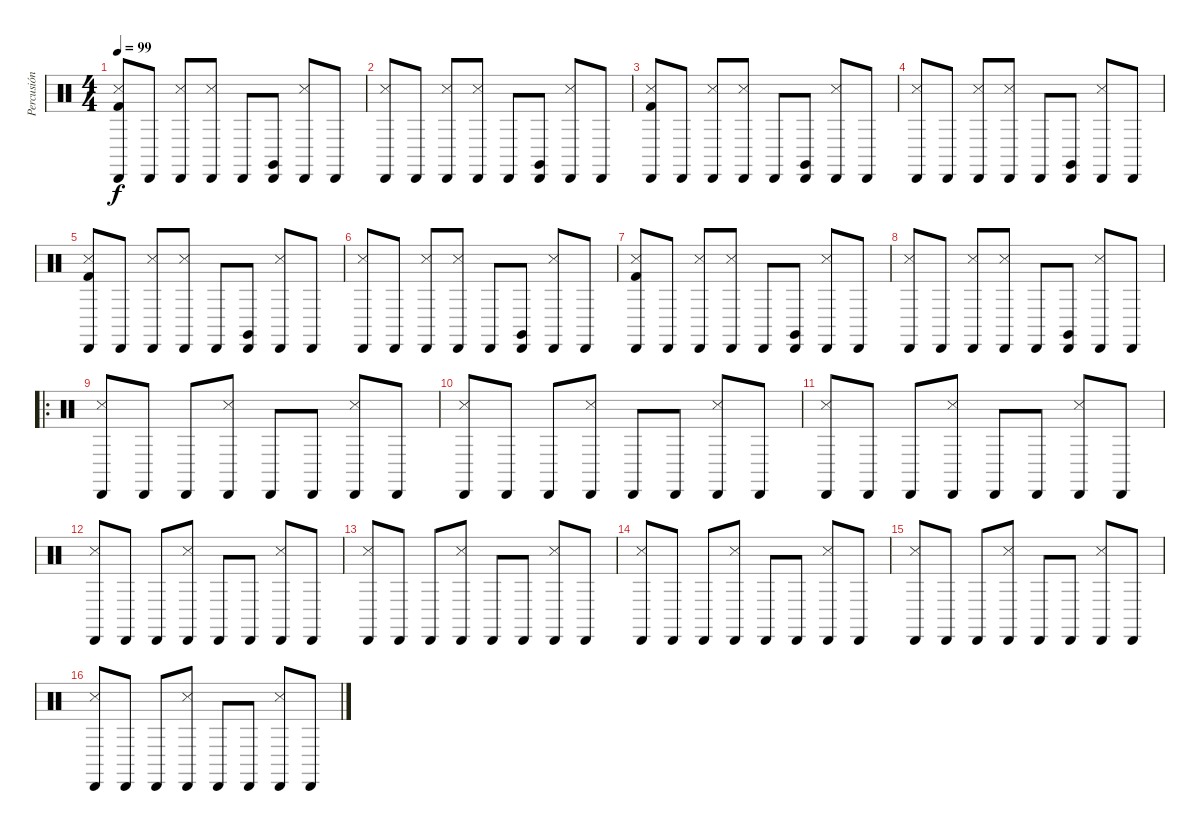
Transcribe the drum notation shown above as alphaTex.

\track ("Percusión" "Percusión") {instrument percussion}
\staff {score}
\articulation defaults
\ts (4 4)
\tempo 99
\clef neutral
\ks c
("Cabasa (hit)" "Metronome (hit)" "Kick (hit) 2").8{dy f} "Cabasa (hit)".8 ("Cabasa (hit)" "Metronome (hit)").8 ("Cabasa (hit)" "Metronome (hit)").8 "Cabasa (hit)".8 ("Cabasa (hit)" "Claves (hit)").8 ("Cabasa (hit)" "Metronome (hit)").8 "Cabasa (hit)".8 |
("Cabasa (hit)" "Metronome (hit)").8 "Cabasa (hit)".8 ("Cabasa (hit)" "Metronome (hit)").8 ("Cabasa (hit)" "Metronome (hit)").8 "Cabasa (hit)".8 ("Cabasa (hit)" "Claves (hit)").8 ("Cabasa (hit)" "Metronome (hit)").8 "Cabasa (hit)".8 |
("Cabasa (hit)" "Metronome (hit)" "Kick (hit) 2").8 "Cabasa (hit)".8 ("Cabasa (hit)" "Metronome (hit)").8 ("Cabasa (hit)" "Metronome (hit)").8 "Cabasa (hit)".8 ("Cabasa (hit)" "Claves (hit)").8 ("Cabasa (hit)" "Metronome (hit)").8 "Cabasa (hit)".8 |
("Cabasa (hit)" "Metronome (hit)").8 "Cabasa (hit)".8 ("Cabasa (hit)" "Metronome (hit)").8 ("Cabasa (hit)" "Metronome (hit)").8 "Cabasa (hit)".8 ("Cabasa (hit)" "Claves (hit)").8 ("Cabasa (hit)" "Metronome (hit)").8 "Cabasa (hit)".8 |
("Cabasa (hit)" "Metronome (hit)" "Kick (hit) 2").8 "Cabasa (hit)".8 ("Cabasa (hit)" "Metronome (hit)").8 ("Cabasa (hit)" "Metronome (hit)").8 "Cabasa (hit)".8 ("Cabasa (hit)" "Claves (hit)").8 ("Cabasa (hit)" "Metronome (hit)").8 "Cabasa (hit)".8 |
("Cabasa (hit)" "Metronome (hit)").8 "Cabasa (hit)".8 ("Cabasa (hit)" "Metronome (hit)").8 ("Cabasa (hit)" "Metronome (hit)").8 "Cabasa (hit)".8 ("Cabasa (hit)" "Claves (hit)").8 ("Cabasa (hit)" "Metronome (hit)").8 "Cabasa (hit)".8 |
("Cabasa (hit)" "Metronome (hit)" "Kick (hit) 2").8 "Cabasa (hit)".8 ("Cabasa (hit)" "Metronome (hit)").8 ("Cabasa (hit)" "Metronome (hit)").8 "Cabasa (hit)".8 ("Cabasa (hit)" "Claves (hit)").8 ("Cabasa (hit)" "Metronome (hit)").8 "Cabasa (hit)".8 |
("Cabasa (hit)" "Metronome (hit)").8 "Cabasa (hit)".8 ("Cabasa (hit)" "Metronome (hit)").8 ("Cabasa (hit)" "Metronome (hit)").8 "Cabasa (hit)".8 ("Cabasa (hit)" "Claves (hit)").8 ("Cabasa (hit)" "Metronome (hit)").8 "Cabasa (hit)".8 |
\ro
("Cabasa (hit)" "Metronome (hit)").8 "Cabasa (hit)".8 "Cabasa (hit)".8 ("Cabasa (hit)" "Metronome (hit)").8 "Cabasa (hit)".8 "Cabasa (hit)".8 ("Cabasa (hit)" "Metronome (hit)").8 "Cabasa (hit)".8 |
("Cabasa (hit)" "Metronome (hit)").8 "Cabasa (hit)".8 "Cabasa (hit)".8 ("Cabasa (hit)" "Metronome (hit)").8 "Cabasa (hit)".8 "Cabasa (hit)".8 ("Cabasa (hit)" "Metronome (hit)").8 "Cabasa (hit)".8 |
("Cabasa (hit)" "Metronome (hit)").8 "Cabasa (hit)".8 "Cabasa (hit)".8 ("Cabasa (hit)" "Metronome (hit)").8 "Cabasa (hit)".8 "Cabasa (hit)".8 ("Cabasa (hit)" "Metronome (hit)").8 "Cabasa (hit)".8 |
("Cabasa (hit)" "Metronome (hit)").8 "Cabasa (hit)".8 "Cabasa (hit)".8 ("Cabasa (hit)" "Metronome (hit)").8 "Cabasa (hit)".8 "Cabasa (hit)".8 ("Cabasa (hit)" "Metronome (hit)").8 "Cabasa (hit)".8 |
("Cabasa (hit)" "Metronome (hit)").8 "Cabasa (hit)".8 "Cabasa (hit)".8 ("Cabasa (hit)" "Metronome (hit)").8 "Cabasa (hit)".8 "Cabasa (hit)".8 ("Cabasa (hit)" "Metronome (hit)").8 "Cabasa (hit)".8 |
("Cabasa (hit)" "Metronome (hit)").8 "Cabasa (hit)".8 "Cabasa (hit)".8 ("Cabasa (hit)" "Metronome (hit)").8 "Cabasa (hit)".8 "Cabasa (hit)".8 ("Cabasa (hit)" "Metronome (hit)").8 "Cabasa (hit)".8 |
("Cabasa (hit)" "Metronome (hit)").8 "Cabasa (hit)".8 "Cabasa (hit)".8 ("Cabasa (hit)" "Metronome (hit)").8 "Cabasa (hit)".8 "Cabasa (hit)".8 ("Cabasa (hit)" "Metronome (hit)").8 "Cabasa (hit)".8 |
("Cabasa (hit)" "Metronome (hit)").8 "Cabasa (hit)".8 "Cabasa (hit)".8 ("Cabasa (hit)" "Metronome (hit)").8 "Cabasa (hit)".8 "Cabasa (hit)".8 ("Cabasa (hit)" "Metronome (hit)").8 "Cabasa (hit)".8
